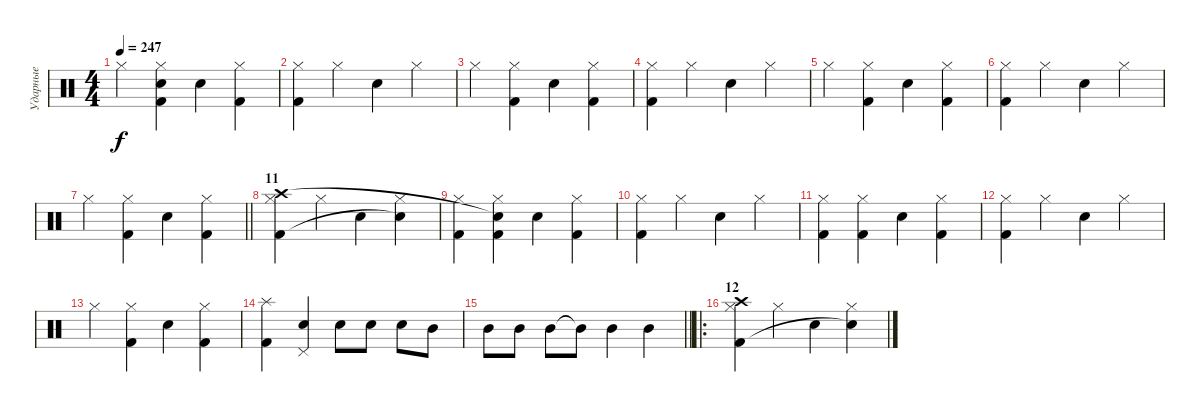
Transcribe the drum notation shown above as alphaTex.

\track ("Ударные" "Ударные") {instrument percussion}
\staff {score}
\articulation defaults
\ts (4 4)
\tempo 247
\clef neutral
\ks c "Hi-Hat (closed)".4{dy f}
("Hi-Hat (closed)" "Kick (hit) 2" "Snare (hit)"{t}).4 "Snare (hit) 2".4 ("Hi-Hat (closed)" "Kick (hit) 2").4 |
("Hi-Hat (closed)" "Kick (hit) 2").4 "Hi-Hat (closed)".4 "Snare (hit) 2".4 "Hi-Hat (closed)".4 |
"Hi-Hat (closed)".4 ("Hi-Hat (closed)" "Kick (hit) 2").4 "Snare (hit) 2".4 ("Hi-Hat (closed)" "Kick (hit) 2").4 |
("Hi-Hat (closed)" "Kick (hit) 2").4 "Hi-Hat (closed)".4 "Snare (hit) 2".4 "Hi-Hat (closed)".4 |
"Hi-Hat (closed)".4 ("Hi-Hat (closed)" "Kick (hit) 2").4 "Snare (hit) 2".4 ("Hi-Hat (closed)" "Kick (hit) 2").4 |
("Hi-Hat (closed)" "Kick (hit) 2").4 "Hi-Hat (closed)".4 "Snare (hit) 2".4 "Hi-Hat (closed)".4 |
\barLineRight lightlight "Hi-Hat (closed)".4
("Hi-Hat (closed)" "Kick (hit) 2").4 "Snare (hit) 2".4 ("Hi-Hat (closed)" "Kick (hit) 2").4 |
\section ("" "11")
("Hi-Hat (closed)" "Kick (hit) 2" "Crash high (hit)").4 "Hi-Hat (closed)".4 "Snare (hit) 2".4 ("Hi-Hat (closed)" "Snare (hit)"{t}).4 |
("Hi-Hat (closed)" "Kick (hit) 2").4 ("Hi-Hat (closed)" "Kick (hit) 2" "Snare (hit)"{t}).4 "Snare (hit) 2".4 ("Hi-Hat (closed)" "Kick (hit) 2").4 |
("Hi-Hat (closed)" "Kick (hit) 2").4 "Hi-Hat (closed)".4 "Snare (hit) 2".4 "Hi-Hat (closed)".4 |
("Hi-Hat (closed)" "Kick (hit) 2").4 ("Hi-Hat (closed)" "Kick (hit) 2").4 "Snare (hit) 2".4 ("Hi-Hat (closed)" "Kick (hit) 2").4 |
("Hi-Hat (closed)" "Kick (hit) 2").4 "Hi-Hat (closed)".4 "Snare (hit) 2".4 "Hi-Hat (closed)".4 |
"Hi-Hat (closed)".4 ("Hi-Hat (closed)" "Kick (hit) 2").4 "Snare (hit) 2".4 ("Hi-Hat (closed)" "Kick (hit) 2").4 |
("Kick (hit) 2" "Splash (hit)").4 ("Pedal Hi-Hat (hit)" "Electric Snare (hit)").4 "Electric Snare (hit)".8 "Electric Snare (hit)".8 "Electric Snare (hit)".8 "Mid Tom (hit)".8 |
\barLineRight lightlight "Mid Tom (hit)".8 "Mid Tom (hit)".8 "Mid Tom (hit)".8 "Mid Tom (hit)"{t}.8 "Mid Tom (hit)".4 "Mid Tom (hit)".4
|
\ro
\section ("" "12")
("Hi-Hat (closed)" "Kick (hit) 2" "Crash high (hit)").4 "Hi-Hat (closed)".4 "Snare (hit) 2".4 ("Hi-Hat (closed)" "Snare (hit)"{t}).4
